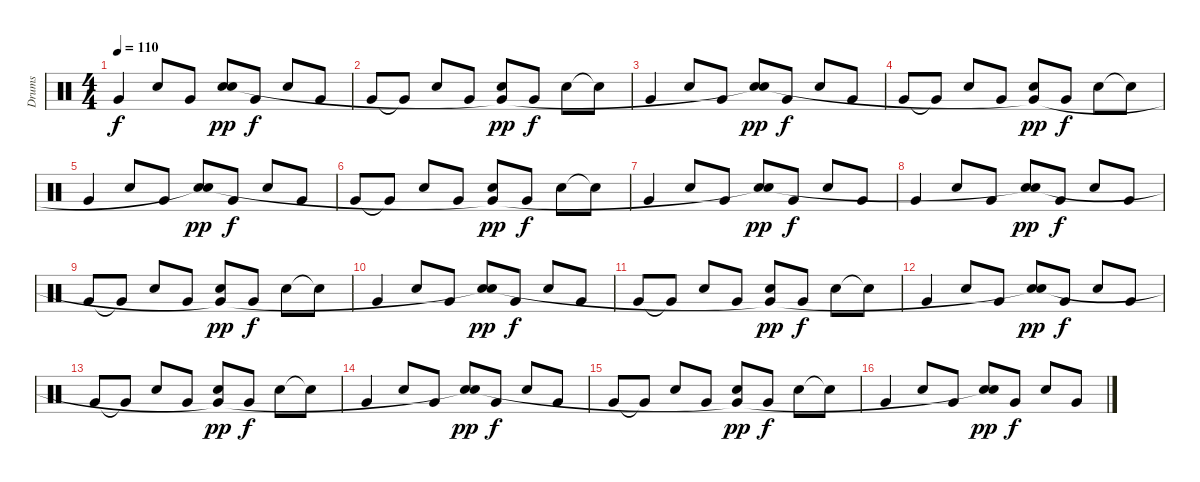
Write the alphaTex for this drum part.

\track ("Drums" "Drums") {instrument percussion}
\staff {score}
\articulation defaults
\ts (4 4)
\tempo 110
\clef neutral
\ks c "Very Low Tom (hit)".4{dy f} "Electric Snare (hit)".8 "Very Low Tom (hit)".8
("Electric Snare (hit)" "Snare (hit)"{t}).8{dy pp} "Very Low Tom (hit)".8{dy f} "Electric Snare (hit)".8 "Very Low Tom (hit)".8 |
"Very Low Tom (hit)".8 "Very Low Tom (hit)"{t}.8 "Electric Snare (hit)".8 "Very Low Tom (hit)".8 ("Electric Snare (hit)" "Very Low Tom (hit)"{t}).8{dy pp} "Very Low Tom (hit)".8{dy f} "Electric Snare (hit)".8 "Snare (hit)"{t}.8 |
"Very Low Tom (hit)".4 "Electric Snare (hit)".8 "Very Low Tom (hit)".8 ("Electric Snare (hit)" "Snare (hit)"{t}).8{dy pp} "Very Low Tom (hit)".8{dy f} "Electric Snare (hit)".8 "Very Low Tom (hit)".8 |
"Very Low Tom (hit)".8 "Very Low Tom (hit)"{t}.8 "Electric Snare (hit)".8 "Very Low Tom (hit)".8 ("Electric Snare (hit)" "Very Low Tom (hit)"{t}).8{dy pp} "Very Low Tom (hit)".8{dy f} "Electric Snare (hit)".8 "Snare (hit)"{t}.8 |
"Very Low Tom (hit)".4 "Electric Snare (hit)".8 "Very Low Tom (hit)".8 ("Electric Snare (hit)" "Snare (hit)"{t}).8{dy pp} "Very Low Tom (hit)".8{dy f} "Electric Snare (hit)".8 "Very Low Tom (hit)".8 |
"Very Low Tom (hit)".8 "Very Low Tom (hit)"{t}.8 "Electric Snare (hit)".8 "Very Low Tom (hit)".8 ("Electric Snare (hit)" "Very Low Tom (hit)"{t}).8{dy pp} "Very Low Tom (hit)".8{dy f} "Electric Snare (hit)".8 "Snare (hit)"{t}.8 |
"Very Low Tom (hit)".4 "Electric Snare (hit)".8 "Very Low Tom (hit)".8 ("Electric Snare (hit)" "Snare (hit)"{t}).8{dy pp} "Very Low Tom (hit)".8{dy f} "Electric Snare (hit)".8 "Very Low Tom (hit)".8 |
"Very Low Tom (hit)".4 "Electric Snare (hit)".8 "Very Low Tom (hit)".8 ("Electric Snare (hit)" "Snare (hit)"{t}).8{dy pp} "Very Low Tom (hit)".8{dy f} "Electric Snare (hit)".8 "Very Low Tom (hit)".8 |
"Very Low Tom (hit)".8 "Very Low Tom (hit)"{t}.8 "Electric Snare (hit)".8 "Very Low Tom (hit)".8 ("Electric Snare (hit)" "Very Low Tom (hit)"{t}).8{dy pp} "Very Low Tom (hit)".8{dy f} "Electric Snare (hit)".8 "Snare (hit)"{t}.8 |
"Very Low Tom (hit)".4 "Electric Snare (hit)".8 "Very Low Tom (hit)".8 ("Electric Snare (hit)" "Snare (hit)"{t}).8{dy pp} "Very Low Tom (hit)".8{dy f} "Electric Snare (hit)".8 "Very Low Tom (hit)".8 |
"Very Low Tom (hit)".8 "Very Low Tom (hit)"{t}.8 "Electric Snare (hit)".8 "Very Low Tom (hit)".8 ("Electric Snare (hit)" "Very Low Tom (hit)"{t}).8{dy pp} "Very Low Tom (hit)".8{dy f} "Electric Snare (hit)".8 "Snare (hit)"{t}.8 |
"Very Low Tom (hit)".4 "Electric Snare (hit)".8 "Very Low Tom (hit)".8 ("Electric Snare (hit)" "Snare (hit)"{t}).8{dy pp} "Very Low Tom (hit)".8{dy f} "Electric Snare (hit)".8 "Very Low Tom (hit)".8 |
"Very Low Tom (hit)".8 "Very Low Tom (hit)"{t}.8 "Electric Snare (hit)".8 "Very Low Tom (hit)".8 ("Electric Snare (hit)" "Very Low Tom (hit)"{t}).8{dy pp} "Very Low Tom (hit)".8{dy f} "Electric Snare (hit)".8 "Snare (hit)"{t}.8 |
"Very Low Tom (hit)".4 "Electric Snare (hit)".8 "Very Low Tom (hit)".8 ("Electric Snare (hit)" "Snare (hit)"{t}).8{dy pp} "Very Low Tom (hit)".8{dy f} "Electric Snare (hit)".8 "Very Low Tom (hit)".8 |
"Very Low Tom (hit)".8 "Very Low Tom (hit)"{t}.8 "Electric Snare (hit)".8 "Very Low Tom (hit)".8 ("Electric Snare (hit)" "Very Low Tom (hit)"{t}).8{dy pp} "Very Low Tom (hit)".8{dy f} "Electric Snare (hit)".8 "Snare (hit)"{t}.8 |
"Very Low Tom (hit)".4 "Electric Snare (hit)".8 "Very Low Tom (hit)".8 ("Electric Snare (hit)" "Snare (hit)"{t}).8{dy pp} "Very Low Tom (hit)".8{dy f} "Electric Snare (hit)".8 "Very Low Tom (hit)".8
